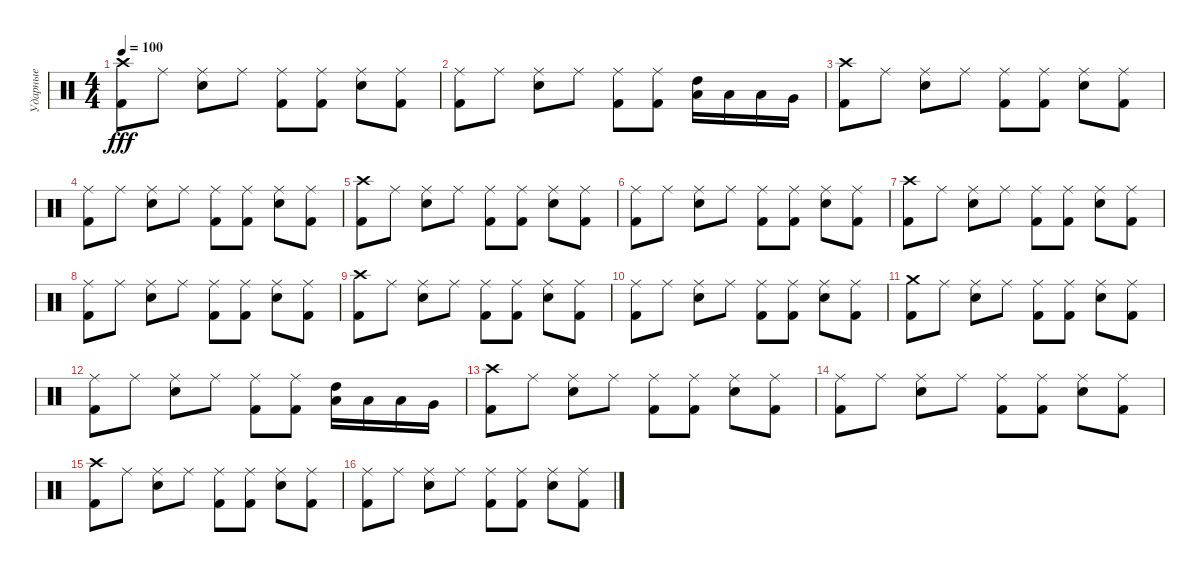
\track ("Ударные" "Ударные") {instrument percussion}
\staff {score}
\articulation defaults
\ts (4 4)
\tempo 100
\clef neutral
\ks c
("Kick (hit) 2" "Crash high (hit)").8{dy fff} "Ride (middle)".8 ("Electric Snare (hit)" "Ride (middle)").8 "Ride (middle)".8 ("Kick (hit) 2" "Ride (middle)").8 ("Kick (hit) 2" "Ride (middle)").8 ("Electric Snare (hit)" "Ride (middle)").8 ("Kick (hit) 2" "Ride (middle)").8 |
("Kick (hit) 2" "Ride (middle)").8 "Ride (middle)".8 ("Electric Snare (hit)" "Ride (middle)").8 "Ride (middle)".8 ("Kick (hit) 2" "Ride (middle)").8 ("Kick (hit) 2" "Ride (middle)").8 ("High Tom (hit)" "Low Tom (hit)").16 "Low Tom (hit)".16 "Low Tom (hit)".16 "Very Low Tom (hit)".16 |
("Kick (hit) 2" "Crash high (hit)").8 "Ride (middle)".8 ("Electric Snare (hit)" "Ride (middle)").8 "Ride (middle)".8 ("Kick (hit) 2" "Ride (middle)").8 ("Kick (hit) 2" "Ride (middle)").8 ("Electric Snare (hit)" "Ride (middle)").8 ("Kick (hit) 2" "Ride (middle)").8 |
("Kick (hit) 2" "Ride (middle)").8 "Ride (middle)".8 ("Electric Snare (hit)" "Ride (middle)").8 "Ride (middle)".8 ("Kick (hit) 2" "Ride (middle)").8 ("Kick (hit) 2" "Ride (middle)").8 ("Electric Snare (hit)" "Ride (middle)").8 ("Kick (hit) 2" "Ride (middle)").8 |
("Kick (hit) 2" "Crash high (hit)").8 "Ride (middle)".8 ("Electric Snare (hit)" "Ride (middle)").8 "Ride (middle)".8 ("Kick (hit) 2" "Ride (middle)").8 ("Kick (hit) 2" "Ride (middle)").8 ("Electric Snare (hit)" "Ride (middle)").8 ("Kick (hit) 2" "Ride (middle)").8 |
("Kick (hit) 2" "Ride (middle)").8 "Ride (middle)".8 ("Electric Snare (hit)" "Ride (middle)").8 "Ride (middle)".8 ("Kick (hit) 2" "Ride (middle)").8 ("Kick (hit) 2" "Ride (middle)").8 ("Electric Snare (hit)" "Ride (middle)").8 ("Kick (hit) 2" "Ride (middle)").8 |
("Kick (hit) 2" "Crash high (hit)").8 "Ride (middle)".8 ("Electric Snare (hit)" "Ride (middle)").8 "Ride (middle)".8 ("Kick (hit) 2" "Ride (middle)").8 ("Kick (hit) 2" "Ride (middle)").8 ("Electric Snare (hit)" "Ride (middle)").8 ("Kick (hit) 2" "Ride (middle)").8 |
("Kick (hit) 2" "Ride (middle)").8 "Ride (middle)".8 ("Electric Snare (hit)" "Ride (middle)").8 "Ride (middle)".8 ("Kick (hit) 2" "Ride (middle)").8 ("Kick (hit) 2" "Ride (middle)").8 ("Electric Snare (hit)" "Ride (middle)").8 ("Kick (hit) 2" "Ride (middle)").8 |
("Kick (hit) 2" "Crash high (hit)").8 "Ride (middle)".8 ("Electric Snare (hit)" "Ride (middle)").8 "Ride (middle)".8 ("Kick (hit) 2" "Ride (middle)").8 ("Kick (hit) 2" "Ride (middle)").8 ("Electric Snare (hit)" "Ride (middle)").8 ("Kick (hit) 2" "Ride (middle)").8 |
("Kick (hit) 2" "Ride (middle)").8 "Ride (middle)".8 ("Electric Snare (hit)" "Ride (middle)").8 "Ride (middle)".8 ("Kick (hit) 2" "Ride (middle)").8 ("Kick (hit) 2" "Ride (middle)").8 ("Electric Snare (hit)" "Ride (middle)").8 ("Kick (hit) 2" "Ride (middle)").8 |
("Kick (hit) 2" "Crash medium (hit)").8 "Ride (middle)".8 ("Electric Snare (hit)" "Ride (middle)").8 "Ride (middle)".8 ("Kick (hit) 2" "Ride (middle)").8 ("Kick (hit) 2" "Ride (middle)").8 ("Electric Snare (hit)" "Ride (middle)").8 ("Kick (hit) 2" "Ride (middle)").8 |
("Kick (hit) 2" "Ride (middle)").8 "Ride (middle)".8 ("Electric Snare (hit)" "Ride (middle)").8 "Ride (middle)".8 ("Kick (hit) 2" "Ride (middle)").8 ("Kick (hit) 2" "Ride (middle)").8 ("High Tom (hit)" "Low Tom (hit)").16 "Low Tom (hit)".16 "Low Tom (hit)".16 "Very Low Tom (hit)".16 |
("Kick (hit) 2" "Crash high (hit)").8 "Ride (middle)".8 ("Electric Snare (hit)" "Ride (middle)").8 "Ride (middle)".8 ("Kick (hit) 2" "Ride (middle)").8 ("Kick (hit) 2" "Ride (middle)").8 ("Electric Snare (hit)" "Ride (middle)").8 ("Kick (hit) 2" "Ride (middle)").8 |
("Kick (hit) 2" "Ride (middle)").8 "Ride (middle)".8 ("Electric Snare (hit)" "Ride (middle)").8 "Ride (middle)".8 ("Kick (hit) 2" "Ride (middle)").8 ("Kick (hit) 2" "Ride (middle)").8 ("Electric Snare (hit)" "Ride (middle)").8 ("Kick (hit) 2" "Ride (middle)").8 |
("Kick (hit) 2" "Crash high (hit)").8 "Ride (middle)".8 ("Electric Snare (hit)" "Ride (middle)").8 "Ride (middle)".8 ("Kick (hit) 2" "Ride (middle)").8 ("Kick (hit) 2" "Ride (middle)").8 ("Electric Snare (hit)" "Ride (middle)").8 ("Kick (hit) 2" "Ride (middle)").8 |
("Kick (hit) 2" "Ride (middle)").8 "Ride (middle)".8 ("Electric Snare (hit)" "Ride (middle)").8 "Ride (middle)".8 ("Kick (hit) 2" "Ride (middle)").8 ("Kick (hit) 2" "Ride (middle)").8 ("Electric Snare (hit)" "Ride (middle)").8 ("Kick (hit) 2" "Ride (middle)").8
